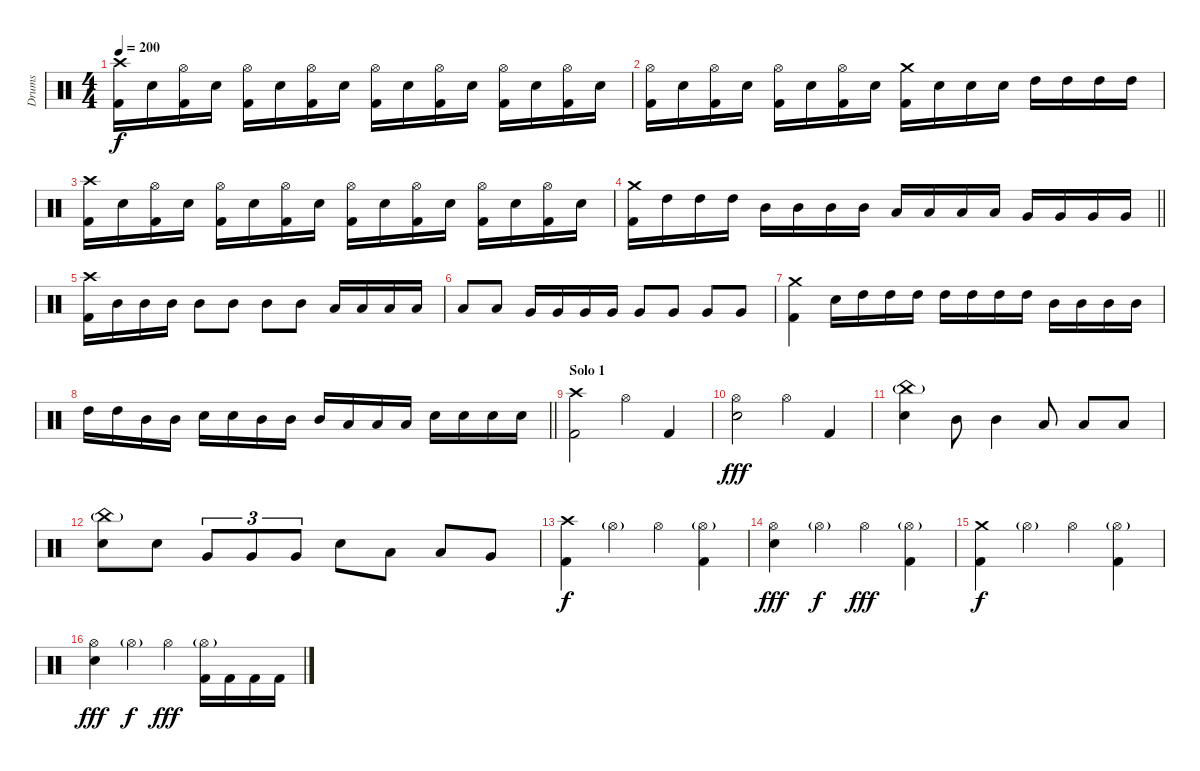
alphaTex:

\track ("Drums" "Drums") {instrument percussion}
\staff {score}
\articulation defaults
\ts (4 4)
\tempo 200
\clef neutral
\ks c
("Crash high (hit)" "Kick (hit) 2").16{dy f} "Electric Snare (hit)".16 ("Hi-Hat (open)" "Kick (hit) 2").16 "Electric Snare (hit)".16 ("Hi-Hat (open)" "Kick (hit) 2").16 "Electric Snare (hit)".16 ("Hi-Hat (open)" "Kick (hit) 2").16 "Electric Snare (hit)".16 ("Hi-Hat (open)" "Kick (hit) 2").16 "Electric Snare (hit)".16 ("Hi-Hat (open)" "Kick (hit) 2").16 "Electric Snare (hit)".16 ("Hi-Hat (open)" "Kick (hit) 2").16 "Electric Snare (hit)".16 ("Hi-Hat (open)" "Kick (hit) 2").16 "Electric Snare (hit)".16 |
("Hi-Hat (open)" "Kick (hit) 2").16 "Electric Snare (hit)".16 ("Hi-Hat (open)" "Kick (hit) 2").16 "Electric Snare (hit)".16 ("Hi-Hat (open)" "Kick (hit) 2").16 "Electric Snare (hit)".16 ("Hi-Hat (open)" "Kick (hit) 2").16 "Electric Snare (hit)".16 ("Crash medium (hit)" "Kick (hit) 2").16 "Electric Snare (hit)".16 "Electric Snare (hit)".16 "Electric Snare (hit)".16 "High Tom (hit)".16 "High Tom (hit)".16 "High Tom (hit)".16 "High Tom (hit)".16 |
("Crash high (hit)" "Kick (hit) 2").16 "Electric Snare (hit)".16 ("Hi-Hat (open)" "Kick (hit) 2").16 "Electric Snare (hit)".16 ("Hi-Hat (open)" "Kick (hit) 2").16 "Electric Snare (hit)".16 ("Hi-Hat (open)" "Kick (hit) 2").16 "Electric Snare (hit)".16 ("Hi-Hat (open)" "Kick (hit) 2").16 "Electric Snare (hit)".16 ("Hi-Hat (open)" "Kick (hit) 2").16 "Electric Snare (hit)".16 ("Hi-Hat (open)" "Kick (hit) 2").16 "Electric Snare (hit)".16 ("Hi-Hat (open)" "Kick (hit) 2").16 "Electric Snare (hit)".16 |
\barLineRight lightlight
("Crash medium (hit)" "Kick (hit) 2").16 "High Tom (hit)".16 "High Tom (hit)".16 "High Tom (hit)".16 "Mid Tom (hit)".16 "Mid Tom (hit)".16 "Mid Tom (hit)".16 "Mid Tom (hit)".16 "Low Tom (hit)".16 "Low Tom (hit)".16 "Low Tom (hit)".16 "Low Tom (hit)".16 "Very Low Tom (hit)".16 "Very Low Tom (hit)".16 "Very Low Tom (hit)".16 "Very Low Tom (hit)".16 |
\section ("" "")
("Crash high (hit)" "Kick (hit) 2").16 "Mid Tom (hit)".16 "Mid Tom (hit)".16 "Mid Tom (hit)".16 "Mid Tom (hit)".8 "Mid Tom (hit)".8 "Mid Tom (hit)".8 "Mid Tom (hit)".8 "Low Tom (hit)".16 "Low Tom (hit)".16 "Low Tom (hit)".16 "Low Tom (hit)".16 |
"Low Tom (hit)".8 "Low Tom (hit)".8 "Very Low Tom (hit)".16 "Very Low Tom (hit)".16 "Very Low Tom (hit)".16 "Very Low Tom (hit)".16 "Very Low Tom (hit)".8 "Very Low Tom (hit)".8 "Very Low Tom (hit)".8 "Very Low Tom (hit)".8 |
("Crash medium (hit)" "Kick (hit) 2").4 "Electric Snare (hit)".16 "High Tom (hit)".16 "High Tom (hit)".16 "High Tom (hit)".16 "High Tom (hit)".16 "High Tom (hit)".16 "High Tom (hit)".16 "High Tom (hit)".16 "Mid Tom (hit)".16 "Mid Tom (hit)".16 "Mid Tom (hit)".16 "Mid Tom (hit)".16 |
\barLineRight lightlight "High Tom (hit)".16 "High Tom (hit)".16 "Mid Tom (hit)".16 "Mid Tom (hit)".16 "Electric Snare (hit)".16 "Electric Snare (hit)".16 "Mid Tom (hit)".16 "Mid Tom (hit)".16 "Mid Tom (hit)".16 "Low Tom (hit)".16 "Low Tom (hit)".16 "Low Tom (hit)".16 "Electric Snare (hit)".16 "Electric Snare (hit)".16 "Electric Snare (hit)".16 "Electric Snare (hit)".16
|
\section ("" "Solo 1")
("Crash high (hit)" "Kick (hit) 2").2 "Hi-Hat (open)".4 "Kick (hit) 2".4 |
("Hi-Hat (open)" "Electric Snare (hit)").2{dy fff} "Hi-Hat (open)".4 "Kick (hit) 2".4 |
("China (hit)"{g} "Electric Snare (hit)").4 "Mid Tom (hit)".8 "Mid Tom (hit)".4 "Low Tom (hit)".8 "Low Tom (hit)".8 "Low Tom (hit)".8 |
("China (hit)"{g} "Electric Snare (hit)").8 "Electric Snare (hit)".8 "Very Low Tom (hit)".8{tu (3 2)} "Very Low Tom (hit)".8{tu (3 2)} "Very Low Tom (hit)".8{tu (3 2)} "Electric Snare (hit)".8 "Low Tom (hit)".8 "Low Tom (hit)".8 "Very Low Tom (hit)".8 |
("Crash high (hit)" "Kick (hit) 2").4{dy f} "Hi-Hat (open)"{g}.4 "Hi-Hat (open)".4 ("Hi-Hat (open)"{g} "Kick (hit) 2").4 |
("Hi-Hat (open)" "Electric Snare (hit)").4{dy fff} "Hi-Hat (open)"{g}.4{dy f} "Hi-Hat (open)".4{dy fff} ("Hi-Hat (open)"{g} "Kick (hit) 2").4 |
("Crash medium (hit)" "Kick (hit) 2").4{dy f} "Hi-Hat (open)"{g}.4 "Hi-Hat (open)".4 ("Hi-Hat (open)"{g} "Kick (hit) 2").4 |
("Hi-Hat (open)" "Electric Snare (hit)").4{dy fff} "Hi-Hat (open)"{g}.4{dy f} "Hi-Hat (open)".4{dy fff} ("Hi-Hat (open)"{g} "Kick (hit) 2").16 "Kick (hit) 2".16 "Kick (hit) 2".16 "Kick (hit) 2".16
